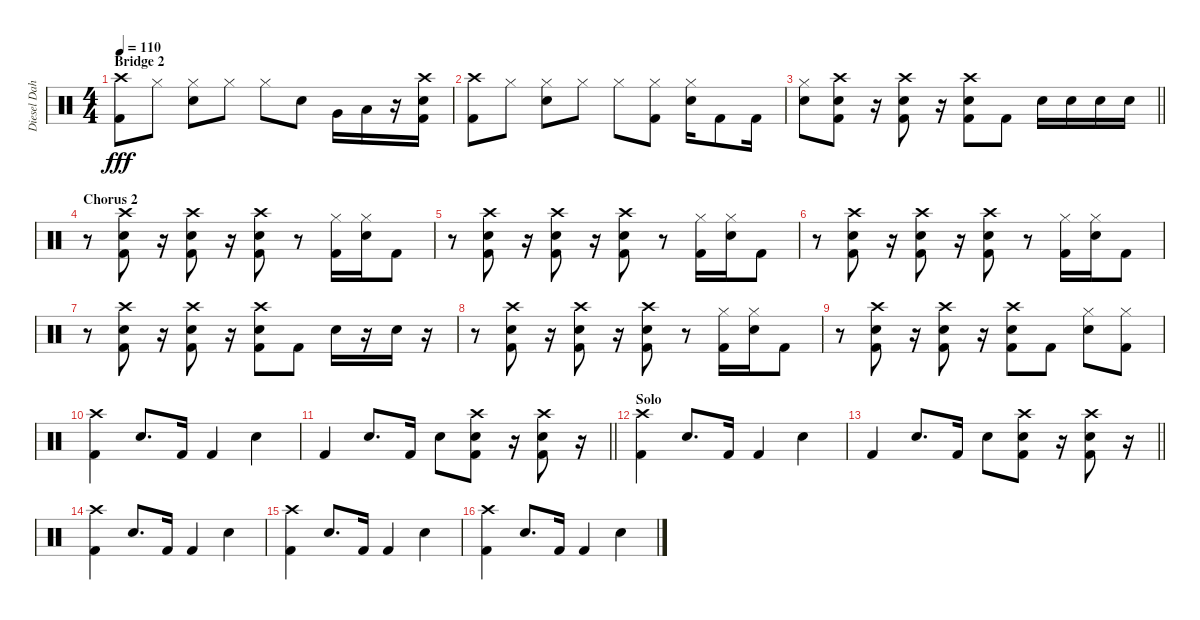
\track ("Diesel Dahl" "Diesel Dah") {instrument percussion}
\staff {score}
\articulation defaults
\ts (4 4)
\section ("" "Bridge 2")
\tempo 110
\clef neutral
\ks c
("Crash high (hit)" "Kick (hit) 2").8{dy fff} "Hi-Hat (closed)".8 ("Hi-Hat (closed)" "Snare (hit) 2").8 "Hi-Hat (closed)".8 "Hi-Hat (closed)".8 "Snare (hit) 2".8 "Very Low Tom (hit)".16 "Low Floor Tom (hit)".16 r.16 ("Crash high (hit)" "Snare (hit) 2" "Kick (hit) 2").16 |
("Crash high (hit)" "Kick (hit) 2").8 "Hi-Hat (closed)".8 ("Hi-Hat (closed)" "Snare (hit) 2").8 "Hi-Hat (closed)".8 "Hi-Hat (closed)".8 ("Hi-Hat (closed)" "Kick (hit) 2").8 ("Hi-Hat (closed)" "Snare (hit) 2").16 "Kick (hit) 2".8 "Kick (hit) 2".16 |
\barLineRight lightlight
("Hi-Hat (closed)" "Snare (hit) 2").8 ("Crash high (hit)" "Snare (hit) 2" "Kick (hit) 2").8 r.16 ("Crash high (hit)" "Snare (hit) 2" "Kick (hit) 2").8 r.16 ("Crash high (hit)" "Snare (hit) 2" "Kick (hit) 2").8 "Kick (hit) 2".8 "Snare (hit) 2".16 "Snare (hit) 2".16 "Snare (hit) 2".16 "Snare (hit) 2".16 |
\section ("" "Chorus 2")
r.8 ("Crash high (hit)" "Snare (hit) 2" "Kick (hit) 2").8 r.16 ("Crash high (hit)" "Snare (hit) 2" "Kick (hit) 2").8 r.16 ("Crash high (hit)" "Snare (hit) 2" "Kick (hit) 2").8 r.8 ("Hi-Hat (closed)" "Kick (hit) 2").16 ("Hi-Hat (closed)" "Snare (hit) 2").16 "Kick (hit) 2".8 |
r.8 ("Crash high (hit)" "Snare (hit) 2" "Kick (hit) 2").8 r.16 ("Crash high (hit)" "Snare (hit) 2" "Kick (hit) 2").8 r.16 ("Crash high (hit)" "Snare (hit) 2" "Kick (hit) 2").8 r.8 ("Hi-Hat (closed)" "Kick (hit) 2").16 ("Hi-Hat (closed)" "Snare (hit) 2").16 "Kick (hit) 2".8 |
r.8 ("Crash high (hit)" "Snare (hit) 2" "Kick (hit) 2").8 r.16 ("Crash high (hit)" "Snare (hit) 2" "Kick (hit) 2").8 r.16 ("Crash high (hit)" "Snare (hit) 2" "Kick (hit) 2").8 r.8 ("Hi-Hat (closed)" "Kick (hit) 2").16 ("Hi-Hat (closed)" "Snare (hit) 2").16 "Kick (hit) 2".8 |
r.8 ("Crash high (hit)" "Snare (hit) 2" "Kick (hit) 2").8 r.16 ("Crash high (hit)" "Snare (hit) 2" "Kick (hit) 2").8 r.16 ("Crash high (hit)" "Snare (hit) 2" "Kick (hit) 2").8 "Kick (hit) 2".8 "Snare (hit) 2".16 r.16 "Snare (hit) 2".16 r.16 |
r.8 ("Crash high (hit)" "Snare (hit) 2" "Kick (hit) 2").8 r.16 ("Crash high (hit)" "Snare (hit) 2" "Kick (hit) 2").8 r.16 ("Crash high (hit)" "Snare (hit) 2" "Kick (hit) 2").8 r.8 ("Hi-Hat (closed)" "Kick (hit) 2").16 ("Hi-Hat (closed)" "Snare (hit) 2").16 "Kick (hit) 2".8 |
r.8 ("Crash high (hit)" "Snare (hit) 2" "Kick (hit) 2").8 r.16 ("Crash high (hit)" "Snare (hit) 2" "Kick (hit) 2").8 r.16 ("Crash high (hit)" "Snare (hit) 2" "Kick (hit) 2").8 "Kick (hit) 2".8 ("Hi-Hat (closed)" "Snare (hit) 2").8 ("Hi-Hat (closed)" "Kick (hit) 2").8 |
("Crash high (hit)" "Kick (hit) 2").4 "Snare (hit) 2".8{d} "Kick (hit) 2".16 "Kick (hit) 2".4 "Snare (hit) 2".4 |
\barLineRight lightlight "Kick (hit) 2".4 "Snare (hit) 2".8{d} "Kick (hit) 2".16 "Snare (hit) 2".8
("Crash high (hit)" "Snare (hit) 2" "Kick (hit) 2").8 r.16 ("Crash high (hit)" "Snare (hit) 2" "Kick (hit) 2").8 r.16 |
\section ("" "Solo")
("Crash high (hit)" "Kick (hit) 2").4 "Snare (hit) 2".8{d} "Kick (hit) 2".16 "Kick (hit) 2".4 "Snare (hit) 2".4 |
\barLineRight lightlight "Kick (hit) 2".4 "Snare (hit) 2".8{d} "Kick (hit) 2".16 "Snare (hit) 2".8
("Crash high (hit)" "Snare (hit) 2" "Kick (hit) 2").8 r.16 ("Crash high (hit)" "Snare (hit) 2" "Kick (hit) 2").8 r.16 |
("Crash high (hit)" "Kick (hit) 2").4 "Snare (hit) 2".8{d} "Kick (hit) 2".16 "Kick (hit) 2".4 "Snare (hit) 2".4 |
("Crash high (hit)" "Kick (hit) 2").4 "Snare (hit) 2".8{d} "Kick (hit) 2".16 "Kick (hit) 2".4 "Snare (hit) 2".4 |
("Crash high (hit)" "Kick (hit) 2").4 "Snare (hit) 2".8{d} "Kick (hit) 2".16 "Kick (hit) 2".4 "Snare (hit) 2".4
